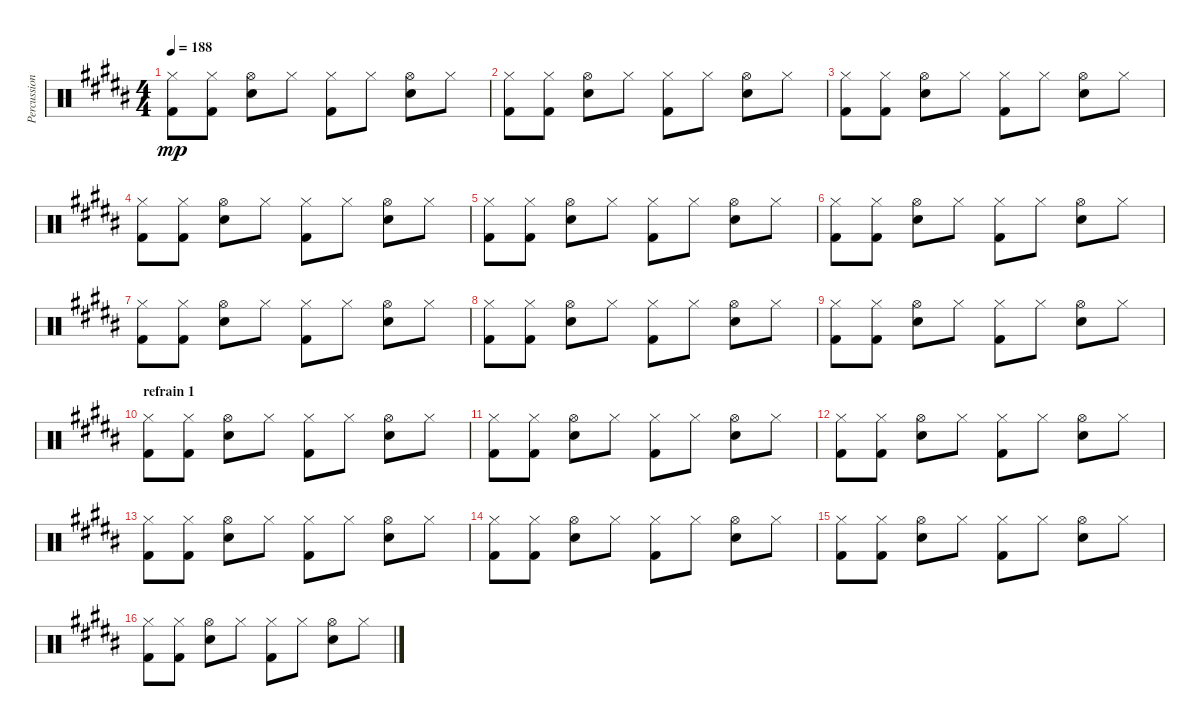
\track ("Percussions" "Percussion") {instrument percussion}
\staff {score}
\articulation defaults
\ts (4 4)
\tempo 188
\clef neutral
\ks b
("Hi-Hat (closed)" "Kick (hit) 2").8{dy mp} ("Hi-Hat (closed)" "Kick (hit) 2").8 ("Hi-Hat (open)" "Snare (hit) 2").8 "Hi-Hat (closed)".8 ("Hi-Hat (closed)" "Kick (hit) 2").8 "Hi-Hat (closed)".8 ("Hi-Hat (open)" "Snare (hit) 2").8 "Hi-Hat (closed)".8 |
("Hi-Hat (closed)" "Kick (hit) 2").8 ("Hi-Hat (closed)" "Kick (hit) 2").8 ("Hi-Hat (open)" "Snare (hit) 2").8 "Hi-Hat (closed)".8 ("Hi-Hat (closed)" "Kick (hit) 2").8 "Hi-Hat (closed)".8 ("Hi-Hat (open)" "Snare (hit) 2").8 "Hi-Hat (closed)".8 |
("Hi-Hat (closed)" "Kick (hit) 2").8 ("Hi-Hat (closed)" "Kick (hit) 2").8 ("Hi-Hat (open)" "Snare (hit) 2").8 "Hi-Hat (closed)".8 ("Hi-Hat (closed)" "Kick (hit) 2").8 "Hi-Hat (closed)".8 ("Hi-Hat (open)" "Snare (hit) 2").8 "Hi-Hat (closed)".8 |
("Hi-Hat (closed)" "Kick (hit) 2").8 ("Hi-Hat (closed)" "Kick (hit) 2").8 ("Hi-Hat (open)" "Snare (hit) 2").8 "Hi-Hat (closed)".8 ("Hi-Hat (closed)" "Kick (hit) 2").8 "Hi-Hat (closed)".8 ("Hi-Hat (open)" "Snare (hit) 2").8 "Hi-Hat (closed)".8 |
("Hi-Hat (closed)" "Kick (hit) 2").8 ("Hi-Hat (closed)" "Kick (hit) 2").8 ("Hi-Hat (open)" "Snare (hit) 2").8 "Hi-Hat (closed)".8 ("Hi-Hat (closed)" "Kick (hit) 2").8 "Hi-Hat (closed)".8 ("Hi-Hat (open)" "Snare (hit) 2").8 "Hi-Hat (closed)".8 |
("Hi-Hat (closed)" "Kick (hit) 2").8 ("Hi-Hat (closed)" "Kick (hit) 2").8 ("Hi-Hat (open)" "Snare (hit) 2").8 "Hi-Hat (closed)".8 ("Hi-Hat (closed)" "Kick (hit) 2").8 "Hi-Hat (closed)".8 ("Hi-Hat (open)" "Snare (hit) 2").8 "Hi-Hat (closed)".8 |
("Hi-Hat (closed)" "Kick (hit) 2").8 ("Hi-Hat (closed)" "Kick (hit) 2").8 ("Hi-Hat (open)" "Snare (hit) 2").8 "Hi-Hat (closed)".8 ("Hi-Hat (closed)" "Kick (hit) 2").8 "Hi-Hat (closed)".8 ("Hi-Hat (open)" "Snare (hit) 2").8 "Hi-Hat (closed)".8 |
("Hi-Hat (closed)" "Kick (hit) 2").8 ("Hi-Hat (closed)" "Kick (hit) 2").8 ("Hi-Hat (open)" "Snare (hit) 2").8 "Hi-Hat (closed)".8 ("Hi-Hat (closed)" "Kick (hit) 2").8 "Hi-Hat (closed)".8 ("Hi-Hat (open)" "Snare (hit) 2").8 "Hi-Hat (closed)".8 |
("Hi-Hat (closed)" "Kick (hit) 2").8 ("Hi-Hat (closed)" "Kick (hit) 2").8 ("Hi-Hat (open)" "Snare (hit) 2").8 "Hi-Hat (closed)".8 ("Hi-Hat (closed)" "Kick (hit) 2").8 "Hi-Hat (closed)".8 ("Hi-Hat (open)" "Snare (hit) 2").8 "Hi-Hat (closed)".8 |
\section ("" "refrain 1")
("Hi-Hat (closed)" "Kick (hit) 2").8 ("Hi-Hat (closed)" "Kick (hit) 2").8 ("Hi-Hat (open)" "Snare (hit) 2").8 "Hi-Hat (closed)".8 ("Hi-Hat (closed)" "Kick (hit) 2").8 "Hi-Hat (closed)".8 ("Hi-Hat (open)" "Snare (hit) 2").8 "Hi-Hat (closed)".8 |
("Hi-Hat (closed)" "Kick (hit) 2").8 ("Hi-Hat (closed)" "Kick (hit) 2").8 ("Hi-Hat (open)" "Snare (hit) 2").8 "Hi-Hat (closed)".8 ("Hi-Hat (closed)" "Kick (hit) 2").8 "Hi-Hat (closed)".8 ("Hi-Hat (open)" "Snare (hit) 2").8 "Hi-Hat (closed)".8 |
("Hi-Hat (closed)" "Kick (hit) 2").8 ("Hi-Hat (closed)" "Kick (hit) 2").8 ("Hi-Hat (open)" "Snare (hit) 2").8 "Hi-Hat (closed)".8 ("Hi-Hat (closed)" "Kick (hit) 2").8 "Hi-Hat (closed)".8 ("Hi-Hat (open)" "Snare (hit) 2").8 "Hi-Hat (closed)".8 |
("Hi-Hat (closed)" "Kick (hit) 2").8 ("Hi-Hat (closed)" "Kick (hit) 2").8 ("Hi-Hat (open)" "Snare (hit) 2").8 "Hi-Hat (closed)".8 ("Hi-Hat (closed)" "Kick (hit) 2").8 "Hi-Hat (closed)".8 ("Hi-Hat (open)" "Snare (hit) 2").8 "Hi-Hat (closed)".8 |
("Hi-Hat (closed)" "Kick (hit) 2").8 ("Hi-Hat (closed)" "Kick (hit) 2").8 ("Hi-Hat (open)" "Snare (hit) 2").8 "Hi-Hat (closed)".8 ("Hi-Hat (closed)" "Kick (hit) 2").8 "Hi-Hat (closed)".8 ("Hi-Hat (open)" "Snare (hit) 2").8 "Hi-Hat (closed)".8 |
("Hi-Hat (closed)" "Kick (hit) 2").8 ("Hi-Hat (closed)" "Kick (hit) 2").8 ("Hi-Hat (open)" "Snare (hit) 2").8 "Hi-Hat (closed)".8 ("Hi-Hat (closed)" "Kick (hit) 2").8 "Hi-Hat (closed)".8 ("Hi-Hat (open)" "Snare (hit) 2").8 "Hi-Hat (closed)".8 |
("Hi-Hat (closed)" "Kick (hit) 2").8 ("Hi-Hat (closed)" "Kick (hit) 2").8 ("Hi-Hat (open)" "Snare (hit) 2").8 "Hi-Hat (closed)".8 ("Hi-Hat (closed)" "Kick (hit) 2").8 "Hi-Hat (closed)".8 ("Hi-Hat (open)" "Snare (hit) 2").8 "Hi-Hat (closed)".8
